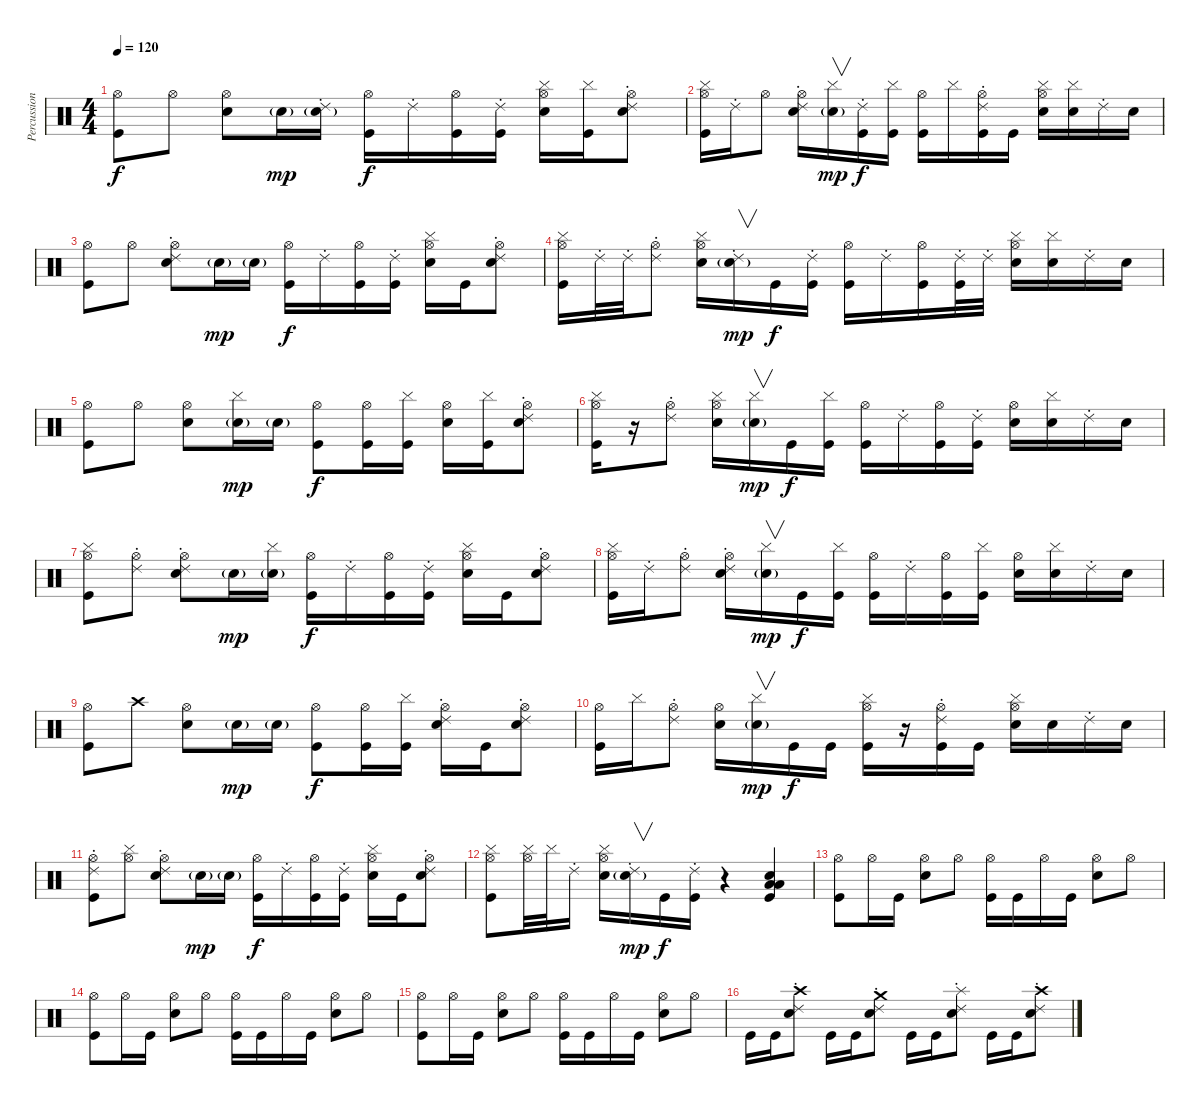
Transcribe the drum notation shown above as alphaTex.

\track ("Percussion" "Percussion") {instrument percussion}
\staff {score}
\articulation defaults
\ts (4 4)
\tempo 120
\clef neutral
\ks c
("Hi-Hat (open)" "Kick (hit)").8{dy f} "Hi-Hat (open)".8 ("Hi-Hat (open)" "Snare (hit) 2").8 "Snare (hit) 2"{g}.16{dy mp} ("Snare (hit) 2"{g} "Ride (choke) 2").16 ("Hi-Hat (open)" "Kick (hit)").16{dy f} "Ride (choke) 2".16 ("Hi-Hat (open)" "Kick (hit)").16 ("Ride (choke) 2" "Kick (hit)").16 ("Hi-Hat (open)" "Snare (hit) 2" "Cymbal (hit)").16 ("Cymbal (hit)" "Kick (hit)").16 ("Hi-Hat (open)" "Snare (hit) 2" "Ride (choke) 2").8 |
("Hi-Hat (open)" "Cymbal (hit)" "Kick (hit)").16 "Ride (choke) 2".16 "Hi-Hat (open)".8 ("Hi-Hat (open)" "Snare (hit) 2" "Ride (choke) 2").16 ("Snare (hit) 2"{g} "Cymbal (hit)").16{v dy mp} ("Ride (choke) 2" "Kick (hit)").16{dy f} ("Cymbal (hit)" "Kick (hit)").16 ("Hi-Hat (open)" "Kick (hit)").16 "Cymbal (hit)".16 ("Hi-Hat (open)" "Ride (choke) 2" "Kick (hit)").16 "Kick (hit)".16 ("Hi-Hat (open)" "Snare (hit) 2" "Cymbal (hit)").16 ("Snare (hit) 2" "Cymbal (hit)").16 "Ride (choke) 2".16 "Snare (hit) 2".16 |
("Hi-Hat (open)" "Kick (hit)").8 "Hi-Hat (open)".8 ("Hi-Hat (open)" "Snare (hit) 2" "Ride (choke) 2").8 "Snare (hit) 2"{g}.16{dy mp} "Snare (hit) 2"{g}.16 ("Hi-Hat (open)" "Kick (hit)").16{dy f} "Ride (choke) 2".16 ("Hi-Hat (open)" "Kick (hit)").16 ("Ride (choke) 2" "Kick (hit)").16 ("Hi-Hat (open)" "Snare (hit) 2" "Cymbal (hit)").16 "Kick (hit)".16 ("Hi-Hat (open)" "Snare (hit) 2" "Ride (choke) 2").8 |
("Hi-Hat (open)" "Cymbal (hit)" "Kick (hit)").16 "Ride (choke) 2".32 "Ride (choke) 2".32 ("Hi-Hat (open)" "Ride (choke) 2").8 ("Hi-Hat (open)" "Snare (hit) 2" "Cymbal (hit)").16 ("Snare (hit) 2"{g} "Ride (choke) 2").16{v dy mp} "Kick (hit)".16{dy f} ("Ride (choke) 2" "Kick (hit)").16 ("Hi-Hat (open)" "Kick (hit)").16 "Ride (choke) 2".16 ("Hi-Hat (open)" "Kick (hit)").16 ("Ride (choke) 2" "Kick (hit)").32 "Ride (choke) 2".32 ("Hi-Hat (open)" "Snare (hit) 2" "Cymbal (hit)").16 ("Snare (hit) 2" "Cymbal (hit)").16 "Ride (choke) 2".16 "Snare (hit) 2".16 |
("Hi-Hat (open)" "Kick (hit)").8 "Hi-Hat (open)".8 ("Hi-Hat (open)" "Snare (hit) 2").8 ("Snare (hit) 2"{g} "Cymbal (hit)").16{dy mp} "Snare (hit) 2"{g}.16 ("Hi-Hat (open)" "Kick (hit)").8{dy f} ("Hi-Hat (open)" "Kick (hit)").16 ("Cymbal (hit)" "Kick (hit)").16 ("Hi-Hat (open)" "Snare (hit) 2").16 ("Cymbal (hit)" "Kick (hit)").16 ("Hi-Hat (open)" "Snare (hit) 2" "Ride (choke) 2").8 |
("Hi-Hat (open)" "Cymbal (hit)" "Kick (hit)").16 r.16 ("Hi-Hat (open)" "Ride (choke) 2").8 ("Hi-Hat (open)" "Snare (hit) 2" "Cymbal (hit)").16 ("Snare (hit) 2"{g} "Cymbal (hit)").16{v dy mp} "Kick (hit)".16{dy f} ("Cymbal (hit)" "Kick (hit)").16 ("Hi-Hat (open)" "Kick (hit)").16 "Ride (choke) 2".16 ("Hi-Hat (open)" "Kick (hit)").16 ("Ride (choke) 2" "Kick (hit)").16 ("Hi-Hat (open)" "Snare (hit) 2").16 ("Snare (hit) 2" "Cymbal (hit)").16 "Ride (choke) 2".16 "Snare (hit) 2".16 |
("Hi-Hat (open)" "Cymbal (hit)" "Kick (hit)").8 ("Hi-Hat (open)" "Ride (choke) 2").8 ("Hi-Hat (open)" "Snare (hit) 2" "Ride (choke) 2").8 "Snare (hit) 2"{g}.16{dy mp} ("Snare (hit) 2"{g} "Cymbal (hit)").16 ("Hi-Hat (open)" "Kick (hit)").16{dy f} "Ride (choke) 2".16 ("Hi-Hat (open)" "Kick (hit)").16 ("Ride (choke) 2" "Kick (hit)").16 ("Hi-Hat (open)" "Snare (hit) 2" "Cymbal (hit)").16 "Kick (hit)".16 ("Hi-Hat (open)" "Snare (hit) 2" "Ride (choke) 2").8 |
("Hi-Hat (open)" "Cymbal (hit)" "Kick (hit)").16 "Ride (choke) 2".16 ("Hi-Hat (open)" "Ride (choke) 2").8 ("Hi-Hat (open)" "Snare (hit) 2" "Ride (choke) 2").16 ("Snare (hit) 2"{g} "Cymbal (hit)").16{v dy mp} "Kick (hit)".16{dy f} ("Cymbal (hit)" "Kick (hit)").16 ("Hi-Hat (open)" "Kick (hit)").16 "Ride (choke) 2".16 ("Hi-Hat (open)" "Kick (hit)").16 ("Cymbal (hit)" "Kick (hit)").16 ("Hi-Hat (open)" "Snare (hit) 2").16 ("Snare (hit) 2" "Cymbal (hit)").16 "Ride (choke) 2".16 "Snare (hit) 2".16 |
("Hi-Hat (open)" "Kick (hit)").8 "Crash high (hit)".8 ("Hi-Hat (open)" "Snare (hit) 2").8 "Snare (hit) 2"{g}.16{dy mp} "Snare (hit) 2"{g}.16 ("Hi-Hat (open)" "Kick (hit)").8{dy f} ("Hi-Hat (open)" "Kick (hit)").16 ("Cymbal (hit)" "Kick (hit)").16 ("Hi-Hat (open)" "Snare (hit) 2" "Ride (choke) 2").16 "Kick (hit)".16 ("Hi-Hat (open)" "Snare (hit) 2" "Ride (choke) 2").8 |
("Hi-Hat (open)" "Kick (hit)").16 "Cymbal (hit)".16 ("Hi-Hat (open)" "Ride (choke) 2").8 ("Hi-Hat (open)" "Snare (hit) 2").16 ("Snare (hit) 2"{g} "Cymbal (hit)").16{v dy mp} "Kick (hit)".16{dy f} "Kick (hit)".16 ("Hi-Hat (open)" "Cymbal (hit)" "Kick (hit)").16 r.16 ("Hi-Hat (open)" "Ride (choke) 2" "Kick (hit)").16 "Kick (hit)".16 ("Hi-Hat (open)" "Snare (hit) 2" "Cymbal (hit)").16 "Snare (hit) 2".16 "Ride (choke) 2".16 "Snare (hit) 2".16 |
("Hi-Hat (open)" "Ride (choke) 2" "Kick (hit)").8 ("Hi-Hat (open)" "Cymbal (hit)").8 ("Hi-Hat (open)" "Snare (hit) 2" "Ride (choke) 2").8 "Snare (hit) 2"{g}.16{dy mp} "Snare (hit) 2"{g}.16 ("Hi-Hat (open)" "Kick (hit)").16{dy f} "Ride (choke) 2".16 ("Hi-Hat (open)" "Kick (hit)").16 ("Ride (choke) 2" "Kick (hit)").16 ("Hi-Hat (open)" "Snare (hit) 2" "Cymbal (hit)").16 "Kick (hit)".16 ("Hi-Hat (open)" "Snare (hit) 2" "Ride (choke) 2").8 |
("Hi-Hat (open)" "Cymbal (hit)" "Kick (hit)").8 ("Hi-Hat (open)" "Cymbal (hit)").32 "Cymbal (hit)".32 "Ride (choke) 2".16 ("Hi-Hat (open)" "Snare (hit) 2" "Cymbal (hit)").16 ("Snare (hit) 2"{g} "Ride (choke) 2").16{v dy mp} "Kick (hit)".16{dy f} ("Ride (choke) 2" "Kick (hit)").16 r.4 ("Snare (hit) 2" "Low Floor Tom (hit)" "Low Floor Tom (hit)" "Kick (hit)").4 |
("Hi-Hat (open)" "Kick (hit)").8 "Hi-Hat (open)".16 "Kick (hit)".16 ("Hi-Hat (open)" "Snare (hit) 2").8 "Hi-Hat (open)".8 ("Hi-Hat (open)" "Kick (hit)").16 "Kick (hit)".16 "Hi-Hat (open)".16 "Kick (hit)".16 ("Hi-Hat (open)" "Snare (hit) 2").8 "Hi-Hat (open)".8 |
("Hi-Hat (open)" "Kick (hit)").8 "Hi-Hat (open)".16 "Kick (hit)".16 ("Hi-Hat (open)" "Snare (hit) 2").8 "Hi-Hat (open)".8 ("Hi-Hat (open)" "Kick (hit)").16 "Kick (hit)".16 "Hi-Hat (open)".16 "Kick (hit)".16 ("Hi-Hat (open)" "Snare (hit) 2").8 "Hi-Hat (open)".8 |
("Hi-Hat (open)" "Kick (hit)").8 "Hi-Hat (open)".16 "Kick (hit)".16 ("Hi-Hat (open)" "Snare (hit) 2").8 "Hi-Hat (open)".8 ("Hi-Hat (open)" "Kick (hit)").16 "Kick (hit)".16 "Hi-Hat (open)".16 "Kick (hit)".16 ("Hi-Hat (open)" "Snare (hit) 2").8 "Hi-Hat (open)".8 |
"Kick (hit)".16 "Kick (hit)".16 ("Crash high (hit)" "Snare (hit) 2" "Ride (choke) 2").8 "Kick (hit)".16 "Kick (hit)".16 ("Crash medium (hit)" "Snare (hit) 2" "Ride (choke) 2").8 "Kick (hit)".16 "Kick (hit)".16 ("Splash (hit)" "Snare (hit) 2" "Ride (choke) 2").8 "Kick (hit)".16 "Kick (hit)".16 ("Crash high (hit)" "Snare (hit) 2" "Ride (choke) 2").8
